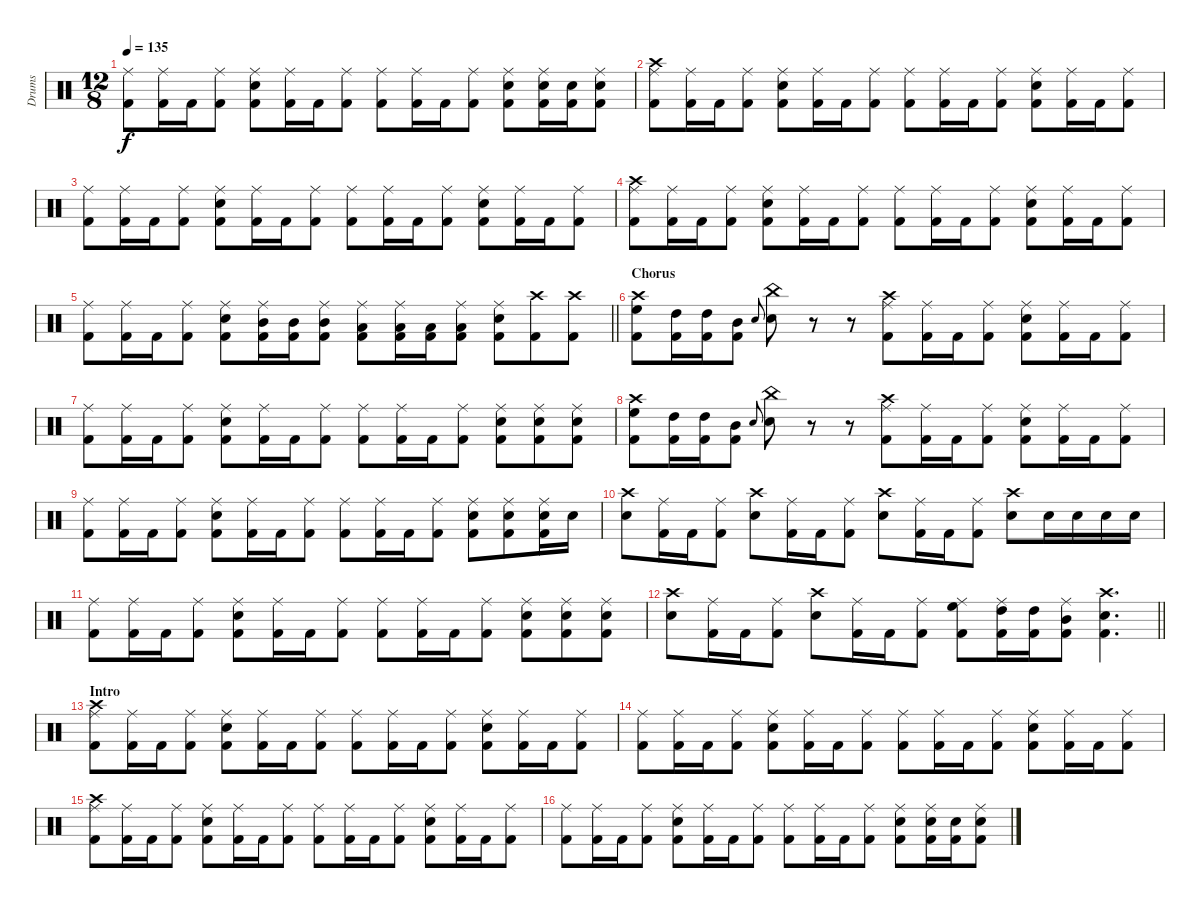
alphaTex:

\track ("Drums" "Drums") {instrument percussion}
\staff {score}
\articulation defaults
\ts (12 8)
\tempo 135
\clef neutral
\ks c
("Ride (middle)" "Kick (hit) 2").8{dy f} ("Ride (middle)" "Kick (hit) 2").16 "Kick (hit) 2".16 ("Ride (middle)" "Kick (hit) 2").8 ("Ride (middle)" "Snare (hit) 2" "Kick (hit) 2").8 ("Ride (middle)" "Kick (hit) 2").16 "Kick (hit) 2".16 ("Ride (middle)" "Kick (hit) 2").8 ("Ride (middle)" "Kick (hit) 2").8 ("Ride (middle)" "Kick (hit) 2").16 "Kick (hit) 2".16 ("Ride (middle)" "Kick (hit) 2").8 ("Ride (middle)" "Snare (hit) 2" "Kick (hit) 2").8 ("Ride (middle)" "Snare (hit) 2" "Kick (hit) 2").16 ("Snare (hit) 2" "Kick (hit) 2").16 ("Ride (middle)" "Snare (hit) 2" "Kick (hit) 2").8 |
("Crash high (hit)" "Ride (middle)" "Kick (hit) 2").8 ("Ride (middle)" "Kick (hit) 2").16 "Kick (hit) 2".16 ("Ride (middle)" "Kick (hit) 2").8 ("Ride (middle)" "Snare (hit) 2" "Kick (hit) 2").8 ("Ride (middle)" "Kick (hit) 2").16 "Kick (hit) 2".16 ("Ride (middle)" "Kick (hit) 2").8 ("Ride (middle)" "Kick (hit) 2").8 ("Ride (middle)" "Kick (hit) 2").16 "Kick (hit) 2".16 ("Ride (middle)" "Kick (hit) 2").8 ("Ride (middle)" "Snare (hit) 2" "Kick (hit) 2").8 ("Ride (middle)" "Kick (hit) 2").16 "Kick (hit) 2".16 ("Ride (middle)" "Kick (hit) 2").8 |
("Ride (middle)" "Kick (hit) 2").8 ("Ride (middle)" "Kick (hit) 2").16 "Kick (hit) 2".16 ("Ride (middle)" "Kick (hit) 2").8 ("Ride (middle)" "Snare (hit) 2" "Kick (hit) 2").8 ("Ride (middle)" "Kick (hit) 2").16 "Kick (hit) 2".16 ("Ride (middle)" "Kick (hit) 2").8 ("Ride (middle)" "Kick (hit) 2").8 ("Ride (middle)" "Kick (hit) 2").16 "Kick (hit) 2".16 ("Ride (middle)" "Kick (hit) 2").8 ("Ride (middle)" "Snare (hit) 2" "Kick (hit) 2").8 ("Ride (middle)" "Kick (hit) 2").16 "Kick (hit) 2".16 ("Ride (middle)" "Kick (hit) 2").8 |
("Crash high (hit)" "Ride (middle)" "Kick (hit) 2").8 ("Ride (middle)" "Kick (hit) 2").16 "Kick (hit) 2".16 ("Ride (middle)" "Kick (hit) 2").8 ("Ride (middle)" "Snare (hit) 2" "Kick (hit) 2").8 ("Ride (middle)" "Kick (hit) 2").16 "Kick (hit) 2".16 ("Ride (middle)" "Kick (hit) 2").8 ("Ride (middle)" "Kick (hit) 2").8 ("Ride (middle)" "Kick (hit) 2").16 "Kick (hit) 2".16 ("Ride (middle)" "Kick (hit) 2").8 ("Ride (middle)" "Snare (hit) 2" "Kick (hit) 2").8 ("Ride (middle)" "Kick (hit) 2").16 "Kick (hit) 2".16 ("Ride (middle)" "Kick (hit) 2").8 |
\barLineRight lightlight
("Ride (middle)" "Kick (hit) 2").8 ("Ride (middle)" "Kick (hit) 2").16 "Kick (hit) 2".16 ("Ride (middle)" "Kick (hit) 2").8 ("Ride (middle)" "Snare (hit) 2" "Kick (hit) 2").8 ("Ride (middle)" "Mid Tom (hit)" "Kick (hit) 2").16 ("Mid Tom (hit)" "Kick (hit) 2").16 ("Ride (middle)" "Mid Tom (hit)" "Kick (hit) 2").8 ("Ride (middle)" "Low Tom (hit)" "Kick (hit) 2").8 ("Ride (middle)" "Low Tom (hit)" "Kick (hit) 2").16 ("Low Tom (hit)" "Kick (hit) 2").16 ("Ride (middle)" "Low Tom (hit)" "Kick (hit) 2").8 ("Ride (middle)" "Snare (hit) 2" "Kick (hit) 2").8 ("Crash high (hit)" "Kick (hit) 2").8 ("Crash high (hit)" "Kick (hit) 2").8 |
\section ("" "Chorus")
("Crash high (hit)" "High Floor Tom (hit)" "Kick (hit) 2").8 ("High Tom (hit)" "Kick (hit) 2").16 ("High Tom (hit)" "Kick (hit) 2").16 ("Mid Tom (hit)" "Kick (hit) 2").8 "Snare (hit) 2".8{gr onbeat} ("China (hit)" "Snare (hit) 2").8 r.8 r.8 ("Crash high (hit)" "Ride (middle)" "Kick (hit) 2").8 ("Ride (middle)" "Kick (hit) 2").16 "Kick (hit) 2".16 ("Ride (middle)" "Kick (hit) 2").8 ("Ride (middle)" "Snare (hit) 2" "Kick (hit) 2").8 ("Ride (middle)" "Kick (hit) 2").16 "Kick (hit) 2".16 ("Ride (middle)" "Kick (hit) 2").8 |
("Ride (middle)" "Kick (hit) 2").8 ("Ride (middle)" "Kick (hit) 2").16 "Kick (hit) 2".16 ("Ride (middle)" "Kick (hit) 2").8 ("Ride (middle)" "Snare (hit) 2" "Kick (hit) 2").8 ("Ride (middle)" "Kick (hit) 2").16 "Kick (hit) 2".16 ("Ride (middle)" "Kick (hit) 2").8 ("Ride (middle)" "Kick (hit) 2").8 ("Ride (middle)" "Kick (hit) 2").16 "Kick (hit) 2".16 ("Ride (middle)" "Kick (hit) 2").8 ("Ride (middle)" "Snare (hit) 2" "Kick (hit) 2").8 ("Ride (middle)" "Snare (hit) 2" "Kick (hit) 2").8 ("Ride (middle)" "Snare (hit) 2" "Kick (hit) 2").8 |
("Crash high (hit)" "High Floor Tom (hit)" "Kick (hit) 2").8 ("High Tom (hit)" "Kick (hit) 2").16 ("High Tom (hit)" "Kick (hit) 2").16 ("Mid Tom (hit)" "Kick (hit) 2").8 "Snare (hit) 2".8{gr onbeat} ("China (hit)" "Snare (hit) 2").8 r.8 r.8 ("Crash high (hit)" "Ride (middle)" "Kick (hit) 2").8 ("Ride (middle)" "Kick (hit) 2").16 "Kick (hit) 2".16 ("Ride (middle)" "Kick (hit) 2").8 ("Ride (middle)" "Snare (hit) 2" "Kick (hit) 2").8 ("Ride (middle)" "Kick (hit) 2").16 "Kick (hit) 2".16 ("Ride (middle)" "Kick (hit) 2").8 |
("Ride (middle)" "Kick (hit) 2").8 ("Ride (middle)" "Kick (hit) 2").16 "Kick (hit) 2".16 ("Ride (middle)" "Kick (hit) 2").8 ("Ride (middle)" "Snare (hit) 2" "Kick (hit) 2").8 ("Ride (middle)" "Kick (hit) 2").16 "Kick (hit) 2".16 ("Ride (middle)" "Kick (hit) 2").8 ("Ride (middle)" "Kick (hit) 2").8 ("Ride (middle)" "Kick (hit) 2").16 "Kick (hit) 2".16 ("Ride (middle)" "Kick (hit) 2").8 ("Ride (middle)" "Snare (hit) 2" "Kick (hit) 2").8 ("Ride (middle)" "Snare (hit) 2" "Kick (hit) 2").8 ("Ride (middle)" "Snare (hit) 2" "Kick (hit) 2").16 "Snare (hit) 2".16 |
("Crash high (hit)" "Snare (hit) 2").8 ("Ride (middle)" "Kick (hit) 2").16 "Kick (hit) 2".16 ("Ride (middle)" "Kick (hit) 2").8 ("Crash high (hit)" "Snare (hit) 2").8 ("Ride (middle)" "Kick (hit) 2").16 "Kick (hit) 2".16 ("Ride (middle)" "Kick (hit) 2").8 ("Crash high (hit)" "Snare (hit) 2").8 ("Ride (middle)" "Kick (hit) 2").16 "Kick (hit) 2".16 ("Ride (middle)" "Kick (hit) 2").8 ("Crash high (hit)" "Snare (hit) 2").8 "Snare (hit) 2".16 "Snare (hit) 2".16 "Snare (hit) 2".16 "Snare (hit) 2".16 |
("Ride (middle)" "Kick (hit) 2").8 ("Ride (middle)" "Kick (hit) 2").16 "Kick (hit) 2".16 ("Ride (middle)" "Kick (hit) 2").8 ("Ride (middle)" "Snare (hit) 2" "Kick (hit) 2").8 ("Ride (middle)" "Kick (hit) 2").16 "Kick (hit) 2".16 ("Ride (middle)" "Kick (hit) 2").8 ("Ride (middle)" "Kick (hit) 2").8 ("Ride (middle)" "Kick (hit) 2").16 "Kick (hit) 2".16 ("Ride (middle)" "Kick (hit) 2").8 ("Ride (middle)" "Snare (hit) 2" "Kick (hit) 2").8 ("Ride (middle)" "Snare (hit) 2" "Kick (hit) 2").8 ("Ride (middle)" "Snare (hit) 2" "Kick (hit) 2").8 |
\barLineRight lightlight
("Crash high (hit)" "Snare (hit) 2").8 ("Ride (middle)" "Kick (hit) 2").16 "Kick (hit) 2".16 ("Ride (middle)" "Kick (hit) 2").8 ("Crash high (hit)" "Snare (hit) 2").8 ("Ride (middle)" "Kick (hit) 2").16 "Kick (hit) 2".16 ("Ride (middle)" "Kick (hit) 2").8 ("Ride (middle)" "High Floor Tom (hit)" "Kick (hit) 2").8 ("Ride (middle)" "High Tom (hit)" "Kick (hit) 2").16 ("High Tom (hit)" "Kick (hit) 2").16 ("Ride (middle)" "Mid Tom (hit)" "Kick (hit) 2").8 ("Crash high (hit)" "Snare (hit) 2" "Kick (hit) 2").4{d} |
\section ("" "Intro")
("Crash high (hit)" "Ride (middle)" "Kick (hit) 2").8 ("Ride (middle)" "Kick (hit) 2").16 "Kick (hit) 2".16 ("Ride (middle)" "Kick (hit) 2").8 ("Ride (middle)" "Snare (hit) 2" "Kick (hit) 2").8 ("Ride (middle)" "Kick (hit) 2").16 "Kick (hit) 2".16 ("Ride (middle)" "Kick (hit) 2").8 ("Ride (middle)" "Kick (hit) 2").8 ("Ride (middle)" "Kick (hit) 2").16 "Kick (hit) 2".16 ("Ride (middle)" "Kick (hit) 2").8 ("Ride (middle)" "Snare (hit) 2" "Kick (hit) 2").8 ("Ride (middle)" "Kick (hit) 2").16 "Kick (hit) 2".16 ("Ride (middle)" "Kick (hit) 2").8 |
("Ride (middle)" "Kick (hit) 2").8 ("Ride (middle)" "Kick (hit) 2").16 "Kick (hit) 2".16 ("Ride (middle)" "Kick (hit) 2").8 ("Ride (middle)" "Snare (hit) 2" "Kick (hit) 2").8 ("Ride (middle)" "Kick (hit) 2").16 "Kick (hit) 2".16 ("Ride (middle)" "Kick (hit) 2").8 ("Ride (middle)" "Kick (hit) 2").8 ("Ride (middle)" "Kick (hit) 2").16 "Kick (hit) 2".16 ("Ride (middle)" "Kick (hit) 2").8 ("Ride (middle)" "Snare (hit) 2" "Kick (hit) 2").8 ("Ride (middle)" "Kick (hit) 2").16 "Kick (hit) 2".16 ("Ride (middle)" "Kick (hit) 2").8 |
("Crash high (hit)" "Ride (middle)" "Kick (hit) 2").8 ("Ride (middle)" "Kick (hit) 2").16 "Kick (hit) 2".16 ("Ride (middle)" "Kick (hit) 2").8 ("Ride (middle)" "Snare (hit) 2" "Kick (hit) 2").8 ("Ride (middle)" "Kick (hit) 2").16 "Kick (hit) 2".16 ("Ride (middle)" "Kick (hit) 2").8 ("Ride (middle)" "Kick (hit) 2").8 ("Ride (middle)" "Kick (hit) 2").16 "Kick (hit) 2".16 ("Ride (middle)" "Kick (hit) 2").8 ("Ride (middle)" "Snare (hit) 2" "Kick (hit) 2").8 ("Ride (middle)" "Kick (hit) 2").16 "Kick (hit) 2".16 ("Ride (middle)" "Kick (hit) 2").8 |
("Ride (middle)" "Kick (hit) 2").8 ("Ride (middle)" "Kick (hit) 2").16 "Kick (hit) 2".16 ("Ride (middle)" "Kick (hit) 2").8 ("Ride (middle)" "Snare (hit) 2" "Kick (hit) 2").8 ("Ride (middle)" "Kick (hit) 2").16 "Kick (hit) 2".16 ("Ride (middle)" "Kick (hit) 2").8 ("Ride (middle)" "Kick (hit) 2").8 ("Ride (middle)" "Kick (hit) 2").16 "Kick (hit) 2".16 ("Ride (middle)" "Kick (hit) 2").8 ("Ride (middle)" "Snare (hit) 2" "Kick (hit) 2").8 ("Ride (middle)" "Snare (hit) 2" "Kick (hit) 2").16 ("Snare (hit) 2" "Kick (hit) 2").16 ("Ride (middle)" "Snare (hit) 2" "Kick (hit) 2").8
